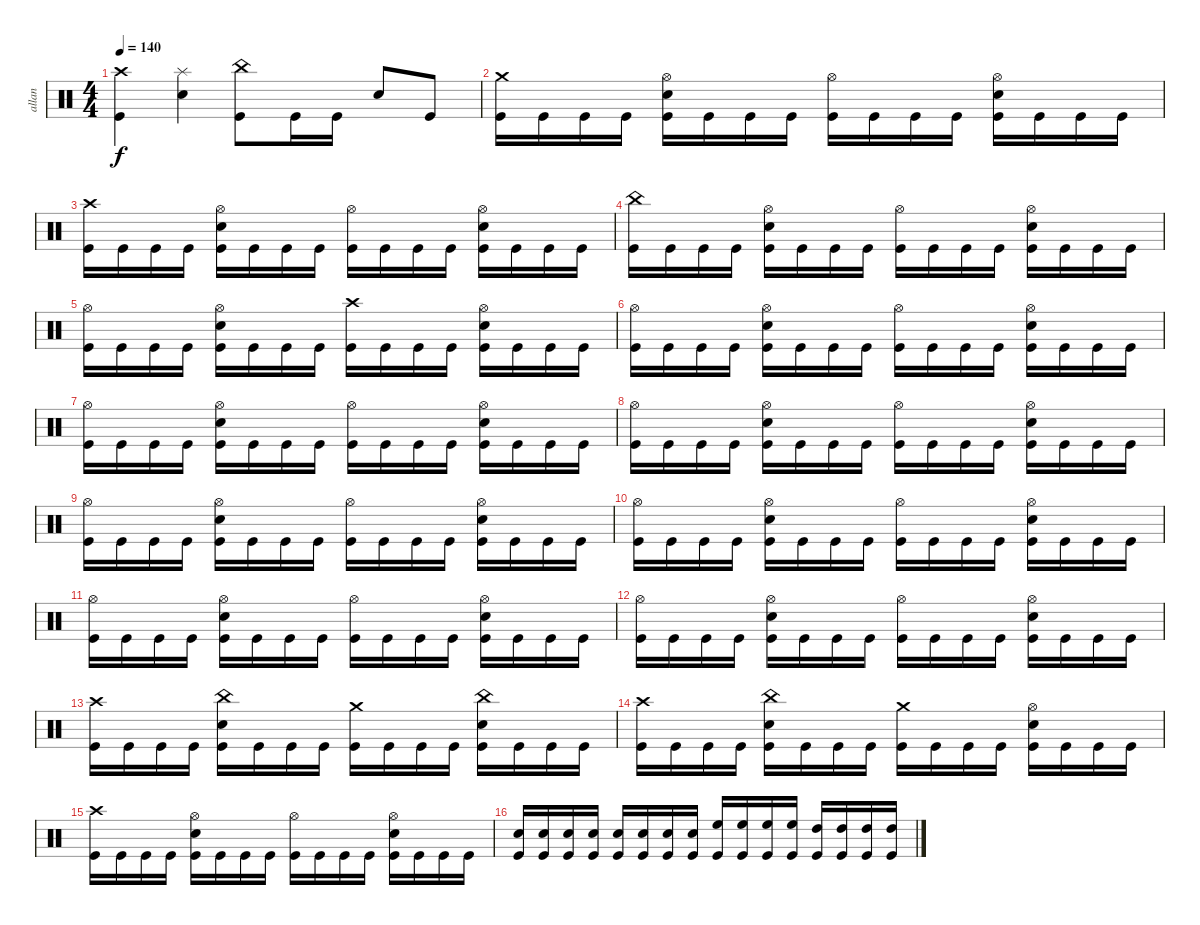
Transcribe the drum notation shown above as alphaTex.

\track ("allan" "allan") {instrument percussion}
\staff {score}
\articulation defaults
\ts (4 4)
\tempo 140
\clef neutral
\ks c
("Crash high (hit)" "Kick (hit)").4{dy f} ("Splash (hit)" "Snare (hit) 2").4 ("China (hit)" "Kick (hit)").8 "Kick (hit)".16 "Kick (hit)".16 "Snare (hit) 2".8 "Kick (hit)".8 |
("Crash medium (hit)" "Kick (hit)").16 "Kick (hit)".16 "Kick (hit)".16 "Kick (hit)".16 ("Hi-Hat (open)" "Snare (hit) 2" "Kick (hit)").16 "Kick (hit)".16 "Kick (hit)".16 "Kick (hit)".16 ("Hi-Hat (open)" "Kick (hit)").16 "Kick (hit)".16 "Kick (hit)".16 "Kick (hit)".16 ("Hi-Hat (open)" "Snare (hit) 2" "Kick (hit)").16 "Kick (hit)".16 "Kick (hit)".16 "Kick (hit)".16 |
("Crash high (hit)" "Kick (hit)").16 "Kick (hit)".16 "Kick (hit)".16 "Kick (hit)".16 ("Hi-Hat (open)" "Snare (hit) 2" "Kick (hit)").16 "Kick (hit)".16 "Kick (hit)".16 "Kick (hit)".16 ("Hi-Hat (open)" "Kick (hit)").16 "Kick (hit)".16 "Kick (hit)".16 "Kick (hit)".16 ("Hi-Hat (open)" "Snare (hit) 2" "Kick (hit)").16 "Kick (hit)".16 "Kick (hit)".16 "Kick (hit)".16 |
("China (hit)" "Kick (hit)").16 "Kick (hit)".16 "Kick (hit)".16 "Kick (hit)".16 ("Hi-Hat (open)" "Snare (hit) 2" "Kick (hit)").16 "Kick (hit)".16 "Kick (hit)".16 "Kick (hit)".16 ("Hi-Hat (open)" "Kick (hit)").16 "Kick (hit)".16 "Kick (hit)".16 "Kick (hit)".16 ("Hi-Hat (open)" "Snare (hit) 2" "Kick (hit)").16 "Kick (hit)".16 "Kick (hit)".16 "Kick (hit)".16 |
("Hi-Hat (open)" "Kick (hit)").16 "Kick (hit)".16 "Kick (hit)".16 "Kick (hit)".16 ("Hi-Hat (open)" "Snare (hit) 2" "Kick (hit)").16 "Kick (hit)".16 "Kick (hit)".16 "Kick (hit)".16 ("Crash high (hit)" "Kick (hit)").16 "Kick (hit)".16 "Kick (hit)".16 "Kick (hit)".16 ("Hi-Hat (open)" "Snare (hit) 2" "Kick (hit)").16 "Kick (hit)".16 "Kick (hit)".16 "Kick (hit)".16 |
("Hi-Hat (open)" "Kick (hit)").16 "Kick (hit)".16 "Kick (hit)".16 "Kick (hit)".16 ("Hi-Hat (open)" "Snare (hit) 2" "Kick (hit)").16 "Kick (hit)".16 "Kick (hit)".16 "Kick (hit)".16 ("Hi-Hat (open)" "Kick (hit)").16 "Kick (hit)".16 "Kick (hit)".16 "Kick (hit)".16 ("Hi-Hat (open)" "Snare (hit) 2" "Kick (hit)").16 "Kick (hit)".16 "Kick (hit)".16 "Kick (hit)".16 |
("Hi-Hat (open)" "Kick (hit)").16 "Kick (hit)".16 "Kick (hit)".16 "Kick (hit)".16 ("Hi-Hat (open)" "Snare (hit) 2" "Kick (hit)").16 "Kick (hit)".16 "Kick (hit)".16 "Kick (hit)".16 ("Hi-Hat (open)" "Kick (hit)").16 "Kick (hit)".16 "Kick (hit)".16 "Kick (hit)".16 ("Hi-Hat (open)" "Snare (hit) 2" "Kick (hit)").16 "Kick (hit)".16 "Kick (hit)".16 "Kick (hit)".16 |
("Hi-Hat (open)" "Kick (hit)").16 "Kick (hit)".16 "Kick (hit)".16 "Kick (hit)".16 ("Snare (hit) 2" "Hi-Hat (open)" "Kick (hit)").16 "Kick (hit)".16 "Kick (hit)".16 "Kick (hit)".16 ("Hi-Hat (open)" "Kick (hit)").16 "Kick (hit)".16 "Kick (hit)".16 "Kick (hit)".16 ("Hi-Hat (open)" "Snare (hit) 2" "Kick (hit)").16 "Kick (hit)".16 "Kick (hit)".16 "Kick (hit)".16 |
("Hi-Hat (open)" "Kick (hit)").16 "Kick (hit)".16 "Kick (hit)".16 "Kick (hit)".16 ("Hi-Hat (open)" "Snare (hit) 2" "Kick (hit)").16 "Kick (hit)".16 "Kick (hit)".16 "Kick (hit)".16 ("Hi-Hat (open)" "Kick (hit)").16 "Kick (hit)".16 "Kick (hit)".16 "Kick (hit)".16 ("Hi-Hat (open)" "Snare (hit) 2" "Kick (hit)").16 "Kick (hit)".16 "Kick (hit)".16 "Kick (hit)".16 |
("Hi-Hat (open)" "Kick (hit)").16 "Kick (hit)".16 "Kick (hit)".16 "Kick (hit)".16 ("Hi-Hat (open)" "Snare (hit) 2" "Kick (hit)").16 "Kick (hit)".16 "Kick (hit)".16 "Kick (hit)".16 ("Hi-Hat (open)" "Kick (hit)").16 "Kick (hit)".16 "Kick (hit)".16 "Kick (hit)".16 ("Hi-Hat (open)" "Snare (hit) 2" "Kick (hit)").16 "Kick (hit)".16 "Kick (hit)".16 "Kick (hit)".16 |
("Hi-Hat (open)" "Kick (hit)").16 "Kick (hit)".16 "Kick (hit)".16 "Kick (hit)".16 ("Hi-Hat (open)" "Snare (hit) 2" "Kick (hit)").16 "Kick (hit)".16 "Kick (hit)".16 "Kick (hit)".16 ("Hi-Hat (open)" "Kick (hit)").16 "Kick (hit)".16 "Kick (hit)".16 "Kick (hit)".16 ("Hi-Hat (open)" "Snare (hit) 2" "Kick (hit)").16 "Kick (hit)".16 "Kick (hit)".16 "Kick (hit)".16 |
("Hi-Hat (open)" "Kick (hit)").16 "Kick (hit)".16 "Kick (hit)".16 "Kick (hit)".16 ("Hi-Hat (open)" "Snare (hit) 2" "Kick (hit)").16 "Kick (hit)".16 "Kick (hit)".16 "Kick (hit)".16 ("Hi-Hat (open)" "Kick (hit)").16 "Kick (hit)".16 "Kick (hit)".16 "Kick (hit)".16 ("Hi-Hat (open)" "Snare (hit) 2" "Kick (hit)").16 "Kick (hit)".16 "Kick (hit)".16 "Kick (hit)".16 |
("Crash high (hit)" "Kick (hit)").16 "Kick (hit)".16 "Kick (hit)".16 "Kick (hit)".16 ("China (hit)" "Snare (hit) 2" "Kick (hit)").16 "Kick (hit)".16 "Kick (hit)".16 "Kick (hit)".16 ("Crash medium (hit)" "Kick (hit)").16 "Kick (hit)".16 "Kick (hit)".16 "Kick (hit)".16 ("Snare (hit) 2" "China (hit)" "Kick (hit)").16 "Kick (hit)".16 "Kick (hit)".16 "Kick (hit)".16 |
("Crash high (hit)" "Kick (hit)").16 "Kick (hit)".16 "Kick (hit)".16 "Kick (hit)".16 ("China (hit)" "Snare (hit) 2" "Kick (hit)").16 "Kick (hit)".16 "Kick (hit)".16 "Kick (hit)".16 ("Crash medium (hit)" "Kick (hit)").16 "Kick (hit)".16 "Kick (hit)".16 "Kick (hit)".16 ("Hi-Hat (open)" "Snare (hit) 2" "Kick (hit)").16 "Kick (hit)".16 "Kick (hit)".16 "Kick (hit)".16 |
("Crash high (hit)" "Kick (hit)").16 "Kick (hit)".16 "Kick (hit)".16 "Kick (hit)".16 ("Hi-Hat (open)" "Snare (hit) 2" "Kick (hit)").16 "Kick (hit)".16 "Kick (hit)".16 "Kick (hit)".16 ("Hi-Hat (open)" "Kick (hit)").16 "Kick (hit)".16 "Kick (hit)".16 "Kick (hit)".16 ("Hi-Hat (open)" "Snare (hit) 2" "Kick (hit)").16 "Kick (hit)".16 "Kick (hit)".16 "Kick (hit)".16 |
("Snare (hit) 2" "Kick (hit)").16 ("Snare (hit) 2" "Kick (hit)").16 ("Snare (hit) 2" "Kick (hit)").16 ("Snare (hit) 2" "Kick (hit)").16 ("Snare (hit) 2" "Kick (hit)").16 ("Snare (hit) 2" "Kick (hit)").16 ("Snare (hit) 2" "Kick (hit)").16 ("Snare (hit) 2" "Kick (hit)").16 ("High Floor Tom (hit)" "Kick (hit)").16 ("High Floor Tom (hit)" "Kick (hit)").16 ("High Floor Tom (hit)" "Kick (hit)").16 ("High Floor Tom (hit)" "Kick (hit)").16 ("High Tom (hit)" "Kick (hit)").16 ("High Tom (hit)" "Kick (hit)").16 ("High Tom (hit)" "Kick (hit)").16 ("High Tom (hit)" "Kick (hit)").16
